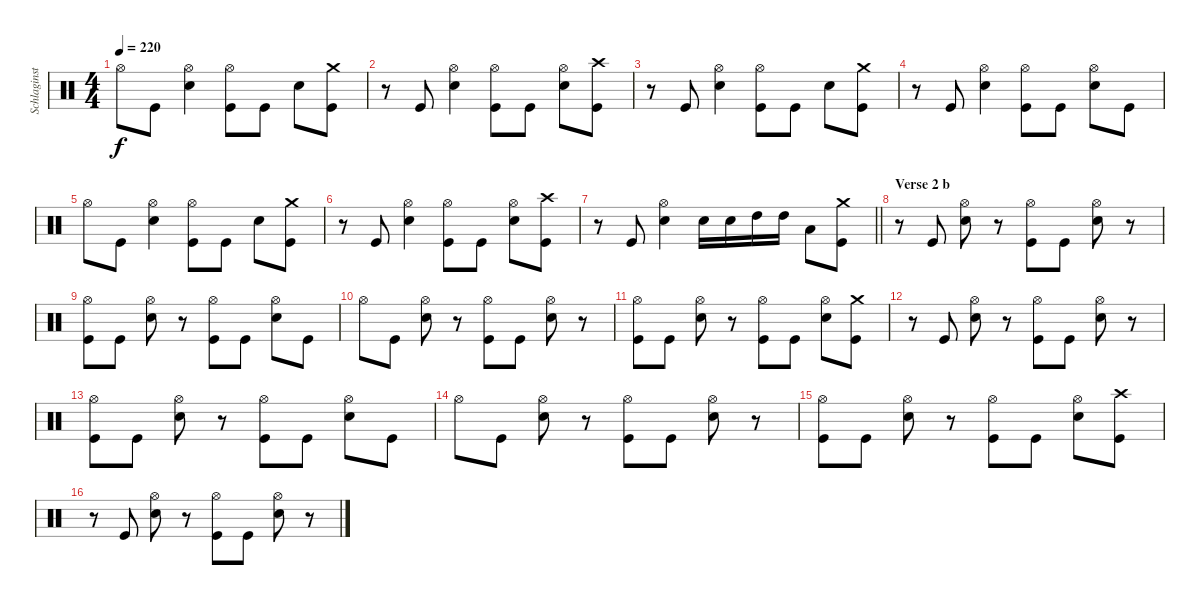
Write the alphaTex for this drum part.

\track ("Schlaginstrumente - Auswahl" "Schlaginst") {instrument percussion}
\staff {score}
\articulation defaults
\ts (4 4)
\tempo 220
\clef neutral
\ks c "Hi-Hat (open)".8{dy f} "Kick (hit)".8
("Hi-Hat (open)" "Electric Snare (hit)").4 ("Hi-Hat (open)" "Kick (hit)").8 "Kick (hit)".8 "Electric Snare (hit)".8 ("Crash medium (hit)" "Kick (hit)").8 |
r.8 "Kick (hit)".8 ("Hi-Hat (open)" "Electric Snare (hit)").4 ("Hi-Hat (open)" "Kick (hit)").8 "Kick (hit)".8 ("Hi-Hat (open)" "Electric Snare (hit)").8 ("Crash high (hit)" "Kick (hit)").8 |
r.8 "Kick (hit)".8 ("Hi-Hat (open)" "Electric Snare (hit)").4 ("Hi-Hat (open)" "Kick (hit)").8 "Kick (hit)".8 "Electric Snare (hit)".8 ("Crash medium (hit)" "Kick (hit)").8 |
r.8 "Kick (hit)".8 ("Hi-Hat (open)" "Electric Snare (hit)").4 ("Hi-Hat (open)" "Kick (hit)").8 "Kick (hit)".8 ("Hi-Hat (open)" "Electric Snare (hit)").8 "Kick (hit)".8 |
"Hi-Hat (open)".8 "Kick (hit)".8 ("Hi-Hat (open)" "Electric Snare (hit)").4 ("Hi-Hat (open)" "Kick (hit)").8 "Kick (hit)".8 "Electric Snare (hit)".8 ("Crash medium (hit)" "Kick (hit)").8 |
r.8 "Kick (hit)".8 ("Hi-Hat (open)" "Electric Snare (hit)").4 ("Hi-Hat (open)" "Kick (hit)").8 "Kick (hit)".8 ("Hi-Hat (open)" "Electric Snare (hit)").8 ("Crash high (hit)" "Kick (hit)").8 |
\barLineRight lightlight
r.8 "Kick (hit)".8 ("Hi-Hat (open)" "Electric Snare (hit)").4 "Electric Snare (hit)".16 "Electric Snare (hit)".16 "High Tom (hit)".16 "High Tom (hit)".16 "Low Tom (hit)".8 ("Crash medium (hit)" "Kick (hit)").8 |
\section ("" "Verse 2 b")
r.8 "Kick (hit)".8 ("Hi-Hat (open)" "Electric Snare (hit)").8 r.8 ("Hi-Hat (open)" "Kick (hit)").8 "Kick (hit)".8 ("Hi-Hat (open)" "Electric Snare (hit)").8 r.8 |
("Hi-Hat (open)" "Kick (hit)").8 "Kick (hit)".8 ("Hi-Hat (open)" "Electric Snare (hit)").8 r.8 ("Hi-Hat (open)" "Kick (hit)").8 "Kick (hit)".8 ("Hi-Hat (open)" "Electric Snare (hit)").8 "Kick (hit)".8 |
"Hi-Hat (open)".8 "Kick (hit)".8 ("Hi-Hat (open)" "Electric Snare (hit)").8 r.8 ("Hi-Hat (open)" "Kick (hit)").8 "Kick (hit)".8 ("Hi-Hat (open)" "Electric Snare (hit)").8 r.8 |
("Hi-Hat (open)" "Kick (hit)").8 "Kick (hit)".8 ("Hi-Hat (open)" "Electric Snare (hit)").8 r.8 ("Hi-Hat (open)" "Kick (hit)").8 "Kick (hit)".8 ("Hi-Hat (open)" "Electric Snare (hit)").8 ("Crash medium (hit)" "Kick (hit)").8 |
r.8 "Kick (hit)".8 ("Hi-Hat (open)" "Electric Snare (hit)").8 r.8 ("Hi-Hat (open)" "Kick (hit)").8 "Kick (hit)".8 ("Hi-Hat (open)" "Electric Snare (hit)").8 r.8 |
("Hi-Hat (open)" "Kick (hit)").8 "Kick (hit)".8 ("Hi-Hat (open)" "Electric Snare (hit)").8 r.8 ("Hi-Hat (open)" "Kick (hit)").8 "Kick (hit)".8 ("Hi-Hat (open)" "Electric Snare (hit)").8 "Kick (hit)".8 |
"Hi-Hat (open)".8 "Kick (hit)".8 ("Hi-Hat (open)" "Electric Snare (hit)").8 r.8 ("Hi-Hat (open)" "Kick (hit)").8 "Kick (hit)".8 ("Hi-Hat (open)" "Electric Snare (hit)").8 r.8 |
("Hi-Hat (open)" "Kick (hit)").8 "Kick (hit)".8 ("Hi-Hat (open)" "Electric Snare (hit)").8 r.8 ("Hi-Hat (open)" "Kick (hit)").8 "Kick (hit)".8 ("Hi-Hat (open)" "Electric Snare (hit)").8 ("Crash high (hit)" "Kick (hit)").8 |
r.8 "Kick (hit)".8 ("Hi-Hat (open)" "Electric Snare (hit)").8 r.8 ("Hi-Hat (open)" "Kick (hit)").8 "Kick (hit)".8 ("Hi-Hat (open)" "Electric Snare (hit)").8 r.8
